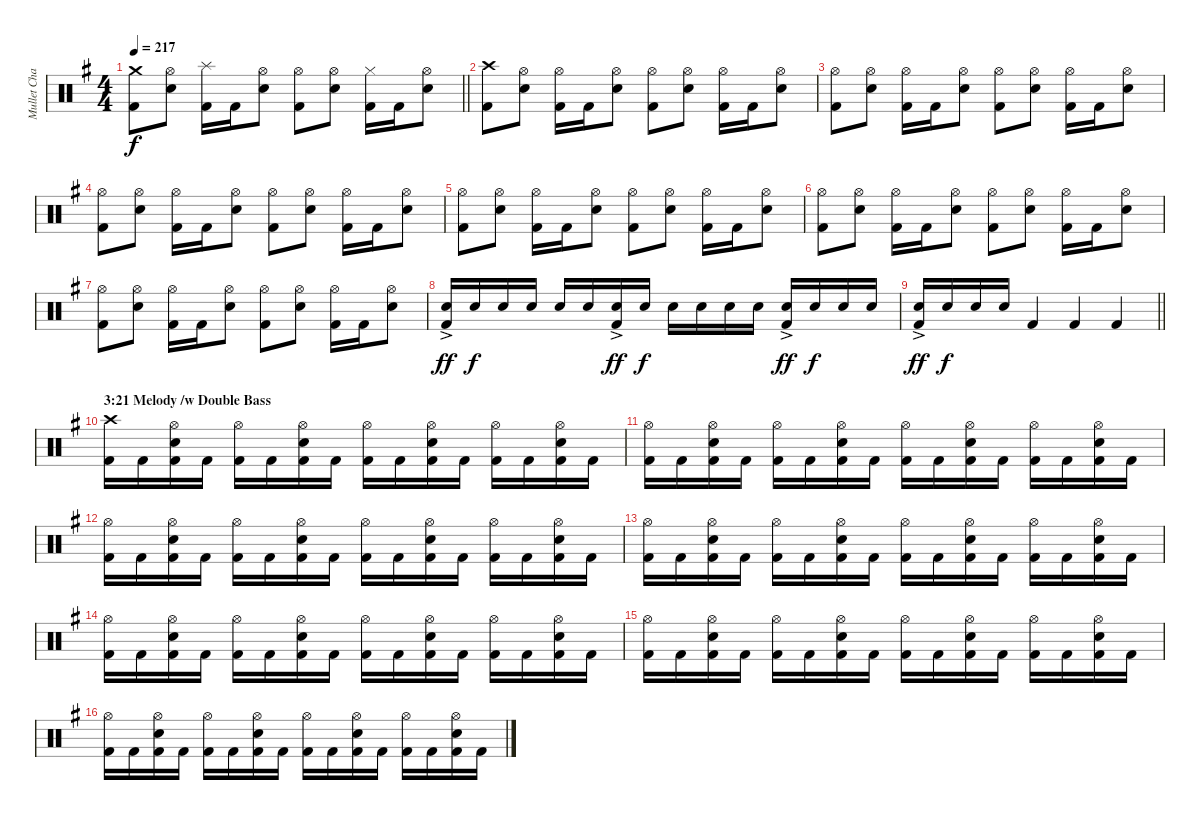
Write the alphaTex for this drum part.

\track ("Mullet Chad" "Mullet Cha") {instrument percussion}
\staff {score}
\articulation defaults
\ts (4 4)
\tempo 217
\clef neutral
\barLineRight lightlight
\ks g
("Crash medium (hit)" "Kick (hit) 2").8{dy f} ("Hi-Hat (open)" "Snare (hit) 2").8 ("Splash (hit)" "Kick (hit) 2").16 "Kick (hit) 2".16 ("Hi-Hat (open)" "Snare (hit) 2").8 ("Hi-Hat (open)" "Kick (hit) 2").8 ("Hi-Hat (open)" "Snare (hit) 2").8 ("Hi-Hat (closed)" "Kick (hit) 2").16 "Kick (hit) 2".16 ("Hi-Hat (open)" "Snare (hit) 2").8 |
("Crash high (hit)" "Kick (hit) 2").8 ("Hi-Hat (open)" "Snare (hit) 2").8 ("Hi-Hat (open)" "Kick (hit) 2").16 "Kick (hit) 2".16 ("Hi-Hat (open)" "Snare (hit) 2").8 ("Hi-Hat (open)" "Kick (hit) 2").8 ("Hi-Hat (open)" "Snare (hit) 2").8 ("Hi-Hat (open)" "Kick (hit) 2").16 "Kick (hit) 2".16 ("Hi-Hat (open)" "Snare (hit) 2").8 |
("Hi-Hat (open)" "Kick (hit) 2").8 ("Hi-Hat (open)" "Snare (hit) 2").8 ("Hi-Hat (open)" "Kick (hit) 2").16 "Kick (hit) 2".16 ("Hi-Hat (open)" "Snare (hit) 2").8 ("Hi-Hat (open)" "Kick (hit) 2").8 ("Hi-Hat (open)" "Snare (hit) 2").8 ("Hi-Hat (open)" "Kick (hit) 2").16 "Kick (hit) 2".16 ("Hi-Hat (open)" "Snare (hit) 2").8 |
("Hi-Hat (open)" "Kick (hit) 2").8 ("Hi-Hat (open)" "Snare (hit) 2").8 ("Hi-Hat (open)" "Kick (hit) 2").16 "Kick (hit) 2".16 ("Hi-Hat (open)" "Snare (hit) 2").8 ("Hi-Hat (open)" "Kick (hit) 2").8 ("Hi-Hat (open)" "Snare (hit) 2").8 ("Hi-Hat (open)" "Kick (hit) 2").16 "Kick (hit) 2".16 ("Hi-Hat (open)" "Snare (hit) 2").8 |
("Hi-Hat (open)" "Kick (hit) 2").8 ("Hi-Hat (open)" "Snare (hit) 2").8 ("Hi-Hat (open)" "Kick (hit) 2").16 "Kick (hit) 2".16 ("Hi-Hat (open)" "Snare (hit) 2").8 ("Hi-Hat (open)" "Kick (hit) 2").8 ("Hi-Hat (open)" "Snare (hit) 2").8 ("Hi-Hat (open)" "Kick (hit) 2").16 "Kick (hit) 2".16 ("Hi-Hat (open)" "Snare (hit) 2").8 |
("Hi-Hat (open)" "Kick (hit) 2").8 ("Hi-Hat (open)" "Snare (hit) 2").8 ("Hi-Hat (open)" "Kick (hit) 2").16 "Kick (hit) 2".16 ("Hi-Hat (open)" "Snare (hit) 2").8 ("Hi-Hat (open)" "Kick (hit) 2").8 ("Hi-Hat (open)" "Snare (hit) 2").8 ("Hi-Hat (open)" "Kick (hit) 2").16 "Kick (hit) 2".16 ("Hi-Hat (open)" "Snare (hit) 2").8 |
("Hi-Hat (open)" "Kick (hit) 2").8 ("Hi-Hat (open)" "Snare (hit) 2").8 ("Hi-Hat (open)" "Kick (hit) 2").16 "Kick (hit) 2".16 ("Hi-Hat (open)" "Snare (hit) 2").8 ("Hi-Hat (open)" "Kick (hit) 2").8 ("Hi-Hat (open)" "Snare (hit) 2").8 ("Hi-Hat (open)" "Kick (hit) 2").16 "Kick (hit) 2".16 ("Hi-Hat (open)" "Snare (hit) 2").8 |
("Snare (hit) 2"{ac} "Kick (hit) 2").16{dy ff} "Snare (hit) 2".16{dy f} "Snare (hit) 2".16 "Snare (hit) 2".16 "Snare (hit) 2".16 "Snare (hit) 2".16 ("Snare (hit) 2"{ac} "Kick (hit) 2").16{dy ff} "Snare (hit) 2".16{dy f} "Snare (hit) 2".16 "Snare (hit) 2".16 "Snare (hit) 2".16 "Snare (hit) 2".16 ("Snare (hit) 2"{ac} "Kick (hit) 2").16{dy ff} "Snare (hit) 2".16{dy f} "Snare (hit) 2".16 "Snare (hit) 2".16 |
\barLineRight lightlight
("Snare (hit) 2"{ac} "Kick (hit) 2").16{dy ff} "Snare (hit) 2".16{dy f} "Snare (hit) 2".16 "Snare (hit) 2".16 "Kick (hit) 2".4 "Kick (hit) 2".4 "Kick (hit) 2".4 |
\section ("" "3:21 Melody /w Double Bass")
("Crash high (hit)" "Kick (hit) 2").16 "Kick (hit) 2".16 ("Hi-Hat (open)" "Snare (hit) 2" "Kick (hit) 2").16 "Kick (hit) 2".16 ("Hi-Hat (open)" "Kick (hit) 2").16 "Kick (hit) 2".16 ("Hi-Hat (open)" "Snare (hit) 2" "Kick (hit) 2").16 "Kick (hit) 2".16 ("Hi-Hat (open)" "Kick (hit) 2").16 "Kick (hit) 2".16 ("Hi-Hat (open)" "Snare (hit) 2" "Kick (hit) 2").16 "Kick (hit) 2".16 ("Hi-Hat (open)" "Kick (hit) 2").16 "Kick (hit) 2".16 ("Hi-Hat (open)" "Snare (hit) 2" "Kick (hit) 2").16 "Kick (hit) 2".16 |
("Hi-Hat (open)" "Kick (hit) 2").16 "Kick (hit) 2".16 ("Hi-Hat (open)" "Snare (hit) 2" "Kick (hit) 2").16 "Kick (hit) 2".16 ("Hi-Hat (open)" "Kick (hit) 2").16 "Kick (hit) 2".16 ("Hi-Hat (open)" "Snare (hit) 2" "Kick (hit) 2").16 "Kick (hit) 2".16 ("Hi-Hat (open)" "Kick (hit) 2").16 "Kick (hit) 2".16 ("Hi-Hat (open)" "Snare (hit) 2" "Kick (hit) 2").16 "Kick (hit) 2".16 ("Hi-Hat (open)" "Kick (hit) 2").16 "Kick (hit) 2".16 ("Hi-Hat (open)" "Snare (hit) 2" "Kick (hit) 2").16 "Kick (hit) 2".16 |
("Hi-Hat (open)" "Kick (hit) 2").16 "Kick (hit) 2".16 ("Hi-Hat (open)" "Snare (hit) 2" "Kick (hit) 2").16 "Kick (hit) 2".16 ("Hi-Hat (open)" "Kick (hit) 2").16 "Kick (hit) 2".16 ("Hi-Hat (open)" "Snare (hit) 2" "Kick (hit) 2").16 "Kick (hit) 2".16 ("Hi-Hat (open)" "Kick (hit) 2").16 "Kick (hit) 2".16 ("Hi-Hat (open)" "Snare (hit) 2" "Kick (hit) 2").16 "Kick (hit) 2".16 ("Hi-Hat (open)" "Kick (hit) 2").16 "Kick (hit) 2".16 ("Hi-Hat (open)" "Snare (hit) 2" "Kick (hit) 2").16 "Kick (hit) 2".16 |
("Hi-Hat (open)" "Kick (hit) 2").16 "Kick (hit) 2".16 ("Hi-Hat (open)" "Snare (hit) 2" "Kick (hit) 2").16 "Kick (hit) 2".16 ("Hi-Hat (open)" "Kick (hit) 2").16 "Kick (hit) 2".16 ("Hi-Hat (open)" "Snare (hit) 2" "Kick (hit) 2").16 "Kick (hit) 2".16 ("Hi-Hat (open)" "Kick (hit) 2").16 "Kick (hit) 2".16 ("Hi-Hat (open)" "Snare (hit) 2" "Kick (hit) 2").16 "Kick (hit) 2".16 ("Hi-Hat (open)" "Kick (hit) 2").16 "Kick (hit) 2".16 ("Hi-Hat (open)" "Snare (hit) 2" "Kick (hit) 2").16 "Kick (hit) 2".16 |
("Hi-Hat (open)" "Kick (hit) 2").16 "Kick (hit) 2".16 ("Hi-Hat (open)" "Snare (hit) 2" "Kick (hit) 2").16 "Kick (hit) 2".16 ("Hi-Hat (open)" "Kick (hit) 2").16 "Kick (hit) 2".16 ("Hi-Hat (open)" "Snare (hit) 2" "Kick (hit) 2").16 "Kick (hit) 2".16 ("Hi-Hat (open)" "Kick (hit) 2").16 "Kick (hit) 2".16 ("Hi-Hat (open)" "Snare (hit) 2" "Kick (hit) 2").16 "Kick (hit) 2".16 ("Hi-Hat (open)" "Kick (hit) 2").16 "Kick (hit) 2".16 ("Hi-Hat (open)" "Snare (hit) 2" "Kick (hit) 2").16 "Kick (hit) 2".16 |
("Hi-Hat (open)" "Kick (hit) 2").16 "Kick (hit) 2".16 ("Hi-Hat (open)" "Snare (hit) 2" "Kick (hit) 2").16 "Kick (hit) 2".16 ("Hi-Hat (open)" "Kick (hit) 2").16 "Kick (hit) 2".16 ("Hi-Hat (open)" "Snare (hit) 2" "Kick (hit) 2").16 "Kick (hit) 2".16 ("Hi-Hat (open)" "Kick (hit) 2").16 "Kick (hit) 2".16 ("Hi-Hat (open)" "Snare (hit) 2" "Kick (hit) 2").16 "Kick (hit) 2".16 ("Hi-Hat (open)" "Kick (hit) 2").16 "Kick (hit) 2".16 ("Hi-Hat (open)" "Snare (hit) 2" "Kick (hit) 2").16 "Kick (hit) 2".16 |
("Hi-Hat (open)" "Kick (hit) 2").16 "Kick (hit) 2".16 ("Hi-Hat (open)" "Snare (hit) 2" "Kick (hit) 2").16 "Kick (hit) 2".16 ("Hi-Hat (open)" "Kick (hit) 2").16 "Kick (hit) 2".16 ("Hi-Hat (open)" "Snare (hit) 2" "Kick (hit) 2").16 "Kick (hit) 2".16 ("Hi-Hat (open)" "Kick (hit) 2").16 "Kick (hit) 2".16 ("Hi-Hat (open)" "Snare (hit) 2" "Kick (hit) 2").16 "Kick (hit) 2".16 ("Hi-Hat (open)" "Kick (hit) 2").16 "Kick (hit) 2".16 ("Hi-Hat (open)" "Snare (hit) 2" "Kick (hit) 2").16 "Kick (hit) 2".16
